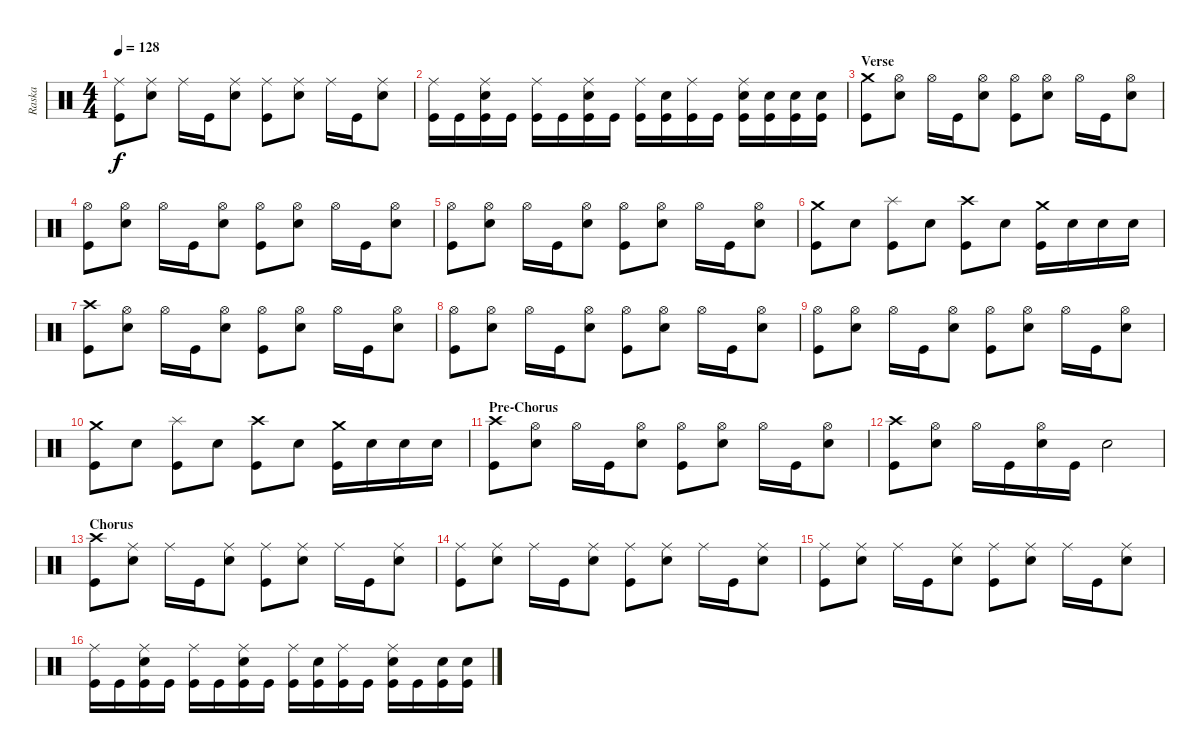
\track ("Raska" "Raska") {instrument percussion}
\staff {score}
\articulation defaults
\ts (4 4)
\tempo 128
\clef neutral
\ks c
("Ride (middle)" "Kick (hit)").8{dy f} ("Ride (middle)" "Electric Snare (hit)").8 "Ride (middle)".16 "Kick (hit)".16 ("Ride (middle)" "Electric Snare (hit)").8 ("Ride (middle)" "Kick (hit)").8 ("Ride (middle)" "Electric Snare (hit)").8 "Ride (middle)".16 "Kick (hit)".16 ("Ride (middle)" "Electric Snare (hit)").8 |
("Ride (middle)" "Kick (hit)").16 "Kick (hit)".16 ("Ride (middle)" "Electric Snare (hit)" "Kick (hit)").16 "Kick (hit)".16 ("Ride (middle)" "Kick (hit)").16 "Kick (hit)".16 ("Ride (middle)" "Electric Snare (hit)" "Kick (hit)").16 "Kick (hit)".16 ("Ride (middle)" "Kick (hit)").16 ("Electric Snare (hit)" "Kick (hit)").16 ("Ride (middle)" "Kick (hit)").16 "Kick (hit)".16 ("Ride (middle)" "Electric Snare (hit)" "Kick (hit)").16 ("Electric Snare (hit)" "Kick (hit)").16 ("Electric Snare (hit)" "Kick (hit)").16 ("Electric Snare (hit)" "Kick (hit)").16 |
\section ("" "Verse")
("Crash medium (hit)" "Kick (hit)").8 ("Hi-Hat (open)" "Electric Snare (hit)").8 "Hi-Hat (open)".16 "Kick (hit)".16 ("Hi-Hat (open)" "Electric Snare (hit)").8 ("Hi-Hat (open)" "Kick (hit)").8 ("Hi-Hat (open)" "Electric Snare (hit)").8 "Hi-Hat (open)".16 "Kick (hit)".16 ("Hi-Hat (open)" "Electric Snare (hit)").8 |
("Hi-Hat (open)" "Kick (hit)").8 ("Hi-Hat (open)" "Electric Snare (hit)").8 "Hi-Hat (open)".16 "Kick (hit)".16 ("Hi-Hat (open)" "Electric Snare (hit)").8 ("Hi-Hat (open)" "Kick (hit)").8 ("Hi-Hat (open)" "Electric Snare (hit)").8 "Hi-Hat (open)".16 "Kick (hit)".16 ("Hi-Hat (open)" "Electric Snare (hit)").8 |
("Hi-Hat (open)" "Kick (hit)").8 ("Hi-Hat (open)" "Electric Snare (hit)").8 "Hi-Hat (open)".16 "Kick (hit)".16 ("Hi-Hat (open)" "Electric Snare (hit)").8 ("Hi-Hat (open)" "Kick (hit)").8 ("Hi-Hat (open)" "Electric Snare (hit)").8 "Hi-Hat (open)".16 "Kick (hit)".16 ("Hi-Hat (open)" "Electric Snare (hit)").8 |
("Crash medium (hit)" "Kick (hit)").8 "Electric Snare (hit)".8 ("Splash (hit)" "Kick (hit)").8 "Electric Snare (hit)".8 ("Crash high (hit)" "Kick (hit)").8 "Electric Snare (hit)".8 ("Crash medium (hit)" "Kick (hit)").16 "Electric Snare (hit)".16 "Electric Snare (hit)".16 "Electric Snare (hit)".16 |
("Crash high (hit)" "Kick (hit)").8 ("Hi-Hat (open)" "Electric Snare (hit)").8 "Hi-Hat (open)".16 "Kick (hit)".16 ("Hi-Hat (open)" "Electric Snare (hit)").8 ("Hi-Hat (open)" "Kick (hit)").8 ("Hi-Hat (open)" "Electric Snare (hit)").8 "Hi-Hat (open)".16 "Kick (hit)".16 ("Hi-Hat (open)" "Electric Snare (hit)").8 |
("Hi-Hat (open)" "Kick (hit)").8 ("Hi-Hat (open)" "Electric Snare (hit)").8 "Hi-Hat (open)".16 "Kick (hit)".16 ("Hi-Hat (open)" "Electric Snare (hit)").8 ("Hi-Hat (open)" "Kick (hit)").8 ("Hi-Hat (open)" "Electric Snare (hit)").8 "Hi-Hat (open)".16 "Kick (hit)".16 ("Hi-Hat (open)" "Electric Snare (hit)").8 |
("Hi-Hat (open)" "Kick (hit)").8 ("Hi-Hat (open)" "Electric Snare (hit)").8 "Hi-Hat (open)".16 "Kick (hit)".16 ("Hi-Hat (open)" "Electric Snare (hit)").8 ("Hi-Hat (open)" "Kick (hit)").8 ("Hi-Hat (open)" "Electric Snare (hit)").8 "Hi-Hat (open)".16 "Kick (hit)".16 ("Hi-Hat (open)" "Electric Snare (hit)").8 |
("Crash medium (hit)" "Kick (hit)").8 "Electric Snare (hit)".8 ("Splash (hit)" "Kick (hit)").8 "Electric Snare (hit)".8 ("Crash high (hit)" "Kick (hit)").8 "Electric Snare (hit)".8 ("Crash medium (hit)" "Kick (hit)").16 "Electric Snare (hit)".16 "Electric Snare (hit)".16 "Electric Snare (hit)".16 |
\section ("" "Pre-Chorus")
("Crash high (hit)" "Kick (hit)").8 ("Hi-Hat (open)" "Electric Snare (hit)").8 "Hi-Hat (open)".16 "Kick (hit)".16 ("Hi-Hat (open)" "Electric Snare (hit)").8 ("Hi-Hat (open)" "Kick (hit)").8 ("Hi-Hat (open)" "Electric Snare (hit)").8 "Hi-Hat (open)".16 "Kick (hit)".16 ("Hi-Hat (open)" "Electric Snare (hit)").8 |
("Crash high (hit)" "Kick (hit)").8 ("Hi-Hat (open)" "Electric Snare (hit)").8 "Hi-Hat (open)".16 "Kick (hit)".16 ("Hi-Hat (open)" "Electric Snare (hit)").16 "Kick (hit)".16 "Electric Snare (hit)".2 |
\section ("" "Chorus")
("Crash high (hit)" "Kick (hit)").8 ("Ride (middle)" "Electric Snare (hit)").8 "Ride (middle)".16 "Kick (hit)".16 ("Ride (middle)" "Electric Snare (hit)").8 ("Ride (middle)" "Kick (hit)").8 ("Ride (middle)" "Electric Snare (hit)").8 "Ride (middle)".16 "Kick (hit)".16 ("Ride (middle)" "Electric Snare (hit)").8 |
("Ride (middle)" "Kick (hit)").8 ("Ride (middle)" "Electric Snare (hit)").8 "Ride (middle)".16 "Kick (hit)".16 ("Ride (middle)" "Electric Snare (hit)").8 ("Ride (middle)" "Kick (hit)").8 ("Ride (middle)" "Electric Snare (hit)").8 "Ride (middle)".16 "Kick (hit)".16 ("Ride (middle)" "Electric Snare (hit)").8 |
("Ride (middle)" "Kick (hit)").8 ("Ride (middle)" "Electric Snare (hit)").8 "Ride (middle)".16 "Kick (hit)".16 ("Ride (middle)" "Electric Snare (hit)").8 ("Ride (middle)" "Kick (hit)").8 ("Ride (middle)" "Electric Snare (hit)").8 "Ride (middle)".16 "Kick (hit)".16 ("Ride (middle)" "Electric Snare (hit)").8 |
("Ride (middle)" "Kick (hit)").16 "Kick (hit)".16 ("Ride (middle)" "Electric Snare (hit)" "Kick (hit)").16 "Kick (hit)".16 ("Ride (middle)" "Kick (hit)").16 "Kick (hit)".16 ("Ride (middle)" "Electric Snare (hit)" "Kick (hit)").16 "Kick (hit)".16 ("Ride (middle)" "Kick (hit)").16 ("Electric Snare (hit)" "Kick (hit)").16 ("Ride (middle)" "Kick (hit)").16 "Kick (hit)".16 ("Ride (middle)" "Electric Snare (hit)" "Kick (hit)").16 "Kick (hit)".16 ("Electric Snare (hit)" "Kick (hit)").16 ("Electric Snare (hit)" "Kick (hit)").16
